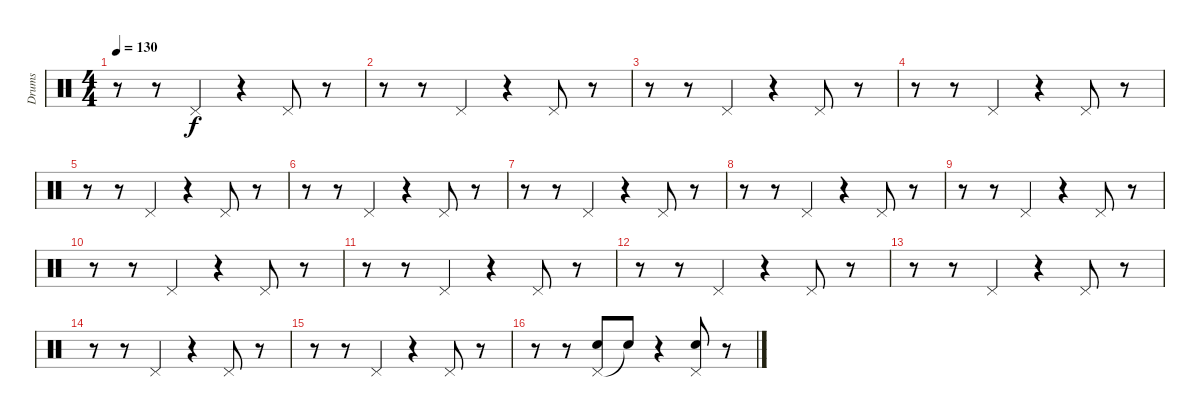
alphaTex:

\track ("Drums" "Drums") {instrument percussion}
\staff {score}
\articulation defaults
\ts (4 4)
\tempo 130
\clef neutral
\ks c
r.8{dy f} r.8 "Pedal Hi-Hat (hit)".4 r.4 "Pedal Hi-Hat (hit)".8 r.8 |
r.8 r.8 "Pedal Hi-Hat (hit)".4 r.4 "Pedal Hi-Hat (hit)".8 r.8 |
r.8 r.8 "Pedal Hi-Hat (hit)".4 r.4 "Pedal Hi-Hat (hit)".8 r.8 |
r.8 r.8 "Pedal Hi-Hat (hit)".4 r.4 "Pedal Hi-Hat (hit)".8 r.8 |
r.8 r.8 "Pedal Hi-Hat (hit)".4 r.4 "Pedal Hi-Hat (hit)".8 r.8 |
r.8 r.8 "Pedal Hi-Hat (hit)".4 r.4 "Pedal Hi-Hat (hit)".8 r.8 |
r.8 r.8 "Pedal Hi-Hat (hit)".4 r.4 "Pedal Hi-Hat (hit)".8 r.8 |
r.8 r.8 "Pedal Hi-Hat (hit)".4 r.4 "Pedal Hi-Hat (hit)".8 r.8 |
r.8 r.8 "Pedal Hi-Hat (hit)".4 r.4 "Pedal Hi-Hat (hit)".8 r.8 |
r.8 r.8 "Pedal Hi-Hat (hit)".4 r.4 "Pedal Hi-Hat (hit)".8 r.8 |
r.8 r.8 "Pedal Hi-Hat (hit)".4 r.4 "Pedal Hi-Hat (hit)".8 r.8 |
r.8 r.8 "Pedal Hi-Hat (hit)".4 r.4 "Pedal Hi-Hat (hit)".8 r.8 |
r.8 r.8 "Pedal Hi-Hat (hit)".4 r.4 "Pedal Hi-Hat (hit)".8 r.8 |
r.8 r.8 "Pedal Hi-Hat (hit)".4 r.4 "Pedal Hi-Hat (hit)".8 r.8 |
r.8 r.8 "Pedal Hi-Hat (hit)".4 r.4 "Pedal Hi-Hat (hit)".8 r.8 |
r.8 r.8 ("Pedal Hi-Hat (hit)" "Hand Clap (hit)").8 "Snare (hit)"{t}.8 r.4 ("Pedal Hi-Hat (hit)" "Hand Clap (hit)").8 r.8
